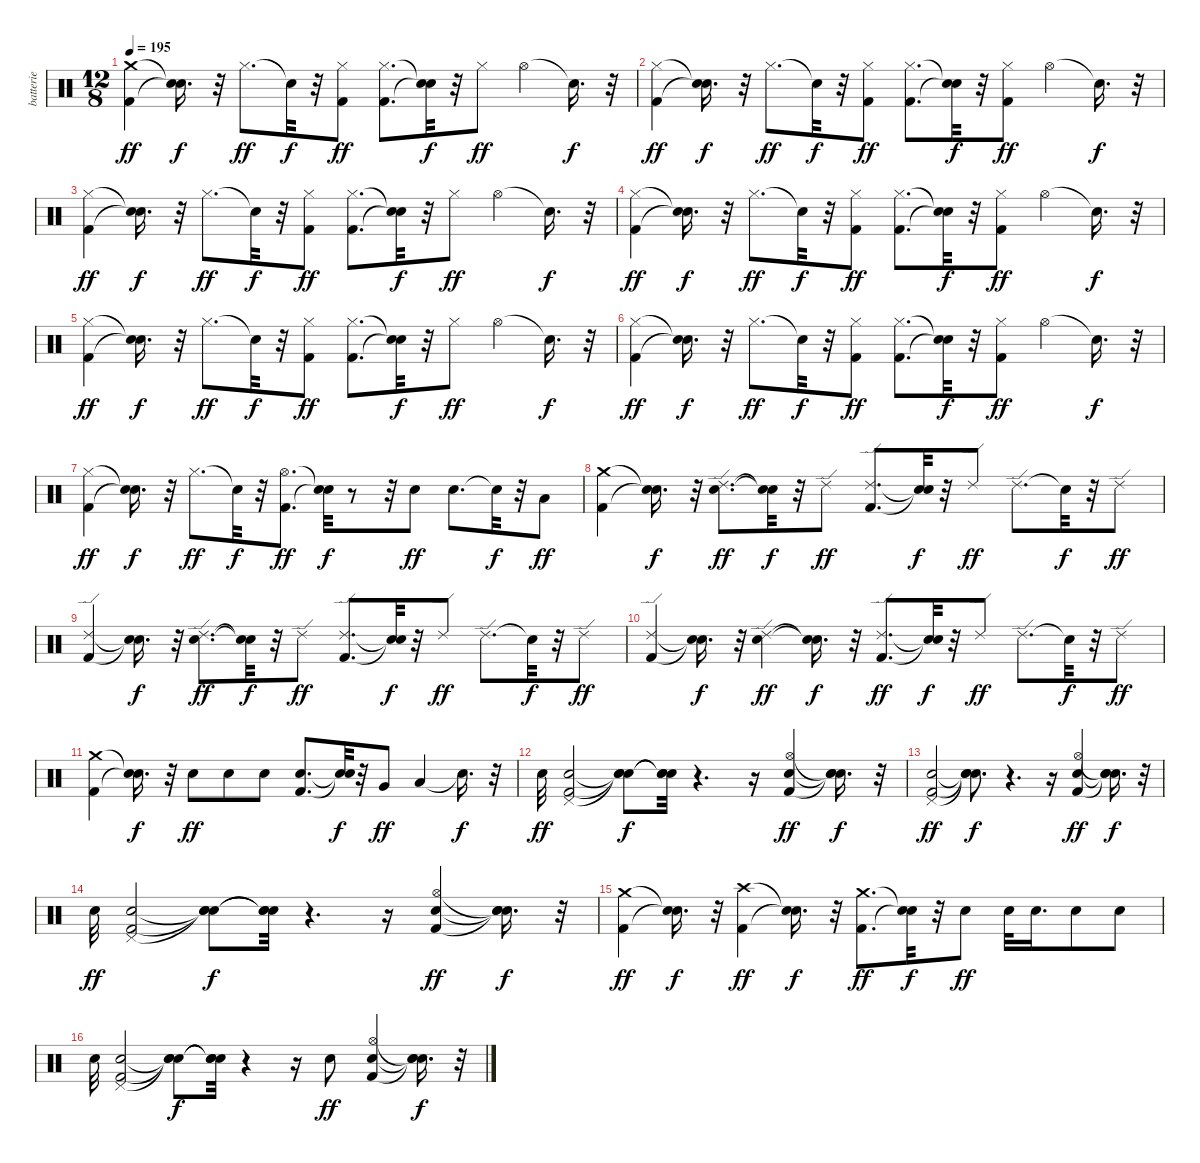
\track ("batterie" "batterie") {instrument percussion}
\staff {score}
\articulation defaults
\ts (12 8)
\tempo 195
\clef neutral
\ks c
("Kick (hit) 2" "Crash medium (hit)").4{dy ff} ("Snare (hit)"{t} "Snare (hit)"{t}).16{d dy f} r.32 "Hi-Hat (closed)".8{d dy ff} "Snare (hit)"{t}.32{dy f} r.32 ("Kick (hit) 2" "Hi-Hat (closed)").8{dy ff} ("Kick (hit) 2" "Hi-Hat (closed)").8{d} ("Snare (hit)"{t} "Snare (hit)"{t}).32{dy f} r.32 "Hi-Hat (closed)".8{dy ff} "Hi-Hat (open)".4 "Snare (hit)"{t}.16{d dy f} r.32 |
("Kick (hit) 2" "Hi-Hat (closed)").4{dy ff} ("Snare (hit)"{t} "Snare (hit)"{t}).16{d dy f} r.32 "Hi-Hat (closed)".8{d dy ff} "Snare (hit)"{t}.32{dy f} r.32 ("Kick (hit) 2" "Hi-Hat (closed)").8{dy ff} ("Kick (hit) 2" "Hi-Hat (closed)").8{d} ("Snare (hit)"{t} "Snare (hit)"{t}).32{dy f} r.32 ("Kick (hit) 2" "Hi-Hat (closed)").8{dy ff} "Hi-Hat (open)".4 "Snare (hit)"{t}.16{d dy f} r.32 |
("Kick (hit) 2" "Hi-Hat (closed)").4{dy ff} ("Snare (hit)"{t} "Snare (hit)"{t}).16{d dy f} r.32 "Hi-Hat (closed)".8{d dy ff} "Snare (hit)"{t}.32{dy f} r.32 ("Kick (hit) 2" "Hi-Hat (closed)").8{dy ff} ("Kick (hit) 2" "Hi-Hat (closed)").8{d} ("Snare (hit)"{t} "Snare (hit)"{t}).32{dy f} r.32 "Hi-Hat (closed)".8{dy ff} "Hi-Hat (open)".4 "Snare (hit)"{t}.16{d dy f} r.32 |
("Kick (hit) 2" "Hi-Hat (closed)").4{dy ff} ("Snare (hit)"{t} "Snare (hit)"{t}).16{d dy f} r.32 "Hi-Hat (closed)".8{d dy ff} "Snare (hit)"{t}.32{dy f} r.32 ("Kick (hit) 2" "Hi-Hat (closed)").8{dy ff} ("Kick (hit) 2" "Hi-Hat (closed)").8{d} ("Snare (hit)"{t} "Snare (hit)"{t}).32{dy f} r.32 ("Kick (hit) 2" "Hi-Hat (closed)").8{dy ff} "Hi-Hat (open)".4 "Snare (hit)"{t}.16{d dy f} r.32 |
("Kick (hit) 2" "Hi-Hat (closed)").4{dy ff} ("Snare (hit)"{t} "Snare (hit)"{t}).16{d dy f} r.32 "Hi-Hat (closed)".8{d dy ff} "Snare (hit)"{t}.32{dy f} r.32 ("Kick (hit) 2" "Hi-Hat (closed)").8{dy ff} ("Kick (hit) 2" "Hi-Hat (closed)").8{d} ("Snare (hit)"{t} "Snare (hit)"{t}).32{dy f} r.32 "Hi-Hat (closed)".8{dy ff} "Hi-Hat (open)".4 "Snare (hit)"{t}.16{d dy f} r.32 |
("Kick (hit) 2" "Hi-Hat (closed)").4{dy ff} ("Snare (hit)"{t} "Snare (hit)"{t}).16{d dy f} r.32 "Hi-Hat (closed)".8{d dy ff} "Snare (hit)"{t}.32{dy f} r.32 ("Kick (hit) 2" "Hi-Hat (closed)").8{dy ff} ("Kick (hit) 2" "Hi-Hat (closed)").8{d} ("Snare (hit)"{t} "Snare (hit)"{t}).32{dy f} r.32 ("Kick (hit) 2" "Hi-Hat (closed)").8{dy ff} "Hi-Hat (open)".4 "Snare (hit)"{t}.16{d dy f} r.32 |
("Kick (hit) 2" "Hi-Hat (closed)").4{dy ff} ("Snare (hit)"{t} "Snare (hit)"{t}).16{d dy f} r.32 "Hi-Hat (closed)".8{d dy ff} "Snare (hit)"{t}.32{dy f} r.32 ("Kick (hit) 2" "Hi-Hat (open)").8{d dy ff} ("Snare (hit)"{t} "Snare (hit)"{t}).32{dy f} r.8 r.32 "Electric Snare (hit)".8{dy ff} "Electric Snare (hit)".8{d} "Snare (hit)"{t}.32{dy f} r.32 "Low Floor Tom (hit)".8{dy ff} |
("Kick (hit) 2" "Crash medium (hit)").4 ("Snare (hit)"{t} "Snare (hit)"{t}).16{d dy f} r.32 ("Electric Snare (hit)" "Ride (edge) 2").8{d dy ff} ("Snare (hit)"{t} "Snare (hit)"{t}).32{dy f} r.32 "Ride (edge) 2".8{dy ff} ("Kick (hit) 2" "Ride (edge) 2").8{d} ("Snare (hit)"{t} "Snare (hit)"{t}).32{dy f} r.32 "Ride (edge) 2".8{dy ff} "Ride (edge) 2".8{d} "Snare (hit)"{t}.32{dy f} r.32 "Ride (edge) 2".8{dy ff} |
("Kick (hit) 2" "Ride (edge) 2").4 ("Snare (hit)"{t} "Snare (hit)"{t}).16{d dy f} r.32 ("Electric Snare (hit)" "Ride (edge) 2").8{d dy ff} ("Snare (hit)"{t} "Snare (hit)"{t}).32{dy f} r.32 "Ride (edge) 2".8{dy ff} ("Kick (hit) 2" "Ride (edge) 2").8{d} ("Snare (hit)"{t} "Snare (hit)"{t}).32{dy f} r.32 "Ride (edge) 2".8{dy ff} "Ride (edge) 2".8{d} "Snare (hit)"{t}.32{dy f} r.32 "Ride (edge) 2".8{dy ff} |
("Kick (hit) 2" "Ride (edge) 2").4 ("Snare (hit)"{t} "Snare (hit)"{t}).16{d dy f} r.32 ("Electric Snare (hit)" "Ride (edge) 2").4{dy ff} ("Snare (hit)"{t} "Snare (hit)"{t}).16{d dy f} r.32 ("Kick (hit) 2" "Ride (edge) 2").8{d dy ff} ("Snare (hit)"{t} "Snare (hit)"{t}).32{dy f} r.32 "Ride (edge) 2".8{dy ff} "Ride (edge) 2".8{d} "Snare (hit)"{t}.32{dy f} r.32 "Ride (edge) 2".8{dy ff} |
("Kick (hit) 2" "Crash medium (hit)").4 ("Snare (hit)"{t} "Snare (hit)"{t}).16{d dy f} r.32 "Electric Snare (hit)".8{dy ff} "Electric Snare (hit)".8 "Electric Snare (hit)".8 ("Kick (hit) 2" "Electric Snare (hit)").8{d} ("Snare (hit)"{t} "Snare (hit)"{t}).32{dy f} r.32 "Very Low Tom (hit)".8{dy ff} "Low Floor Tom (hit)".4 "Snare (hit)"{t}.16{d dy f} r.32 |
"Electric Snare (hit)".32{dy ff} ("Kick (hit) 2" "Electric Snare (hit)" "Pedal Hi-Hat (hit)").2 ("Snare (hit)"{t} "Snare (hit)"{t} "Snare (hit)"{t}).8{dy f} ("Snare (hit)"{t} "Snare (hit)"{t} "Snare (hit)"{t}).32 r.4{d} r.16 ("Kick (hit) 2" "Electric Snare (hit)" "Hi-Hat (open)").4{dy ff} ("Snare (hit)"{t} "Snare (hit)"{t} "Snare (hit)"{t}).16{d dy f} r.32 |
("Kick (hit) 2" "Electric Snare (hit)" "Pedal Hi-Hat (hit)").2{dy ff} ("Snare (hit)"{t} "Snare (hit)"{t} "Snare (hit)"{t}).8{d dy f} r.4{d} r.16 ("Kick (hit) 2" "Electric Snare (hit)" "Hi-Hat (open)").4{dy ff} ("Snare (hit)"{t} "Snare (hit)"{t} "Snare (hit)"{t}).16{d dy f} r.32 |
"Electric Snare (hit)".32{dy ff} ("Kick (hit) 2" "Electric Snare (hit)" "Pedal Hi-Hat (hit)").2 ("Snare (hit)"{t} "Snare (hit)"{t} "Snare (hit)"{t}).8{dy f} ("Snare (hit)"{t} "Snare (hit)"{t} "Snare (hit)"{t}).32 r.4{d} r.16 ("Kick (hit) 2" "Electric Snare (hit)" "Hi-Hat (open)").4{dy ff} ("Snare (hit)"{t} "Snare (hit)"{t} "Snare (hit)"{t}).16{d dy f} r.32 |
("Kick (hit) 2" "Crash medium (hit)").4{dy ff} ("Snare (hit)"{t} "Snare (hit)"{t}).16{d dy f} r.32 ("Kick (hit) 2" "Crash high (hit)").4{dy ff} ("Snare (hit)"{t} "Snare (hit)"{t}).16{d dy f} r.32 ("Kick (hit) 2" "Crash medium (hit)").8{d dy ff} ("Snare (hit)"{t} "Snare (hit)"{t}).32{dy f} r.32 "Electric Snare (hit)".8{dy ff} "Electric Snare (hit)".32 "Electric Snare (hit)".16{d} "Electric Snare (hit)".8 "Electric Snare (hit)".8 |
"Electric Snare (hit)".32 ("Kick (hit) 2" "Electric Snare (hit)" "Pedal Hi-Hat (hit)").2 ("Snare (hit)"{t} "Snare (hit)"{t} "Snare (hit)"{t}).8{dy f} ("Snare (hit)"{t} "Snare (hit)"{t} "Snare (hit)"{t}).32 r.4 r.16 "Electric Snare (hit)".8{dy ff} ("Kick (hit) 2" "Electric Snare (hit)" "Hi-Hat (open)").4 ("Snare (hit)"{t} "Snare (hit)"{t} "Snare (hit)"{t}).16{d dy f} r.32
